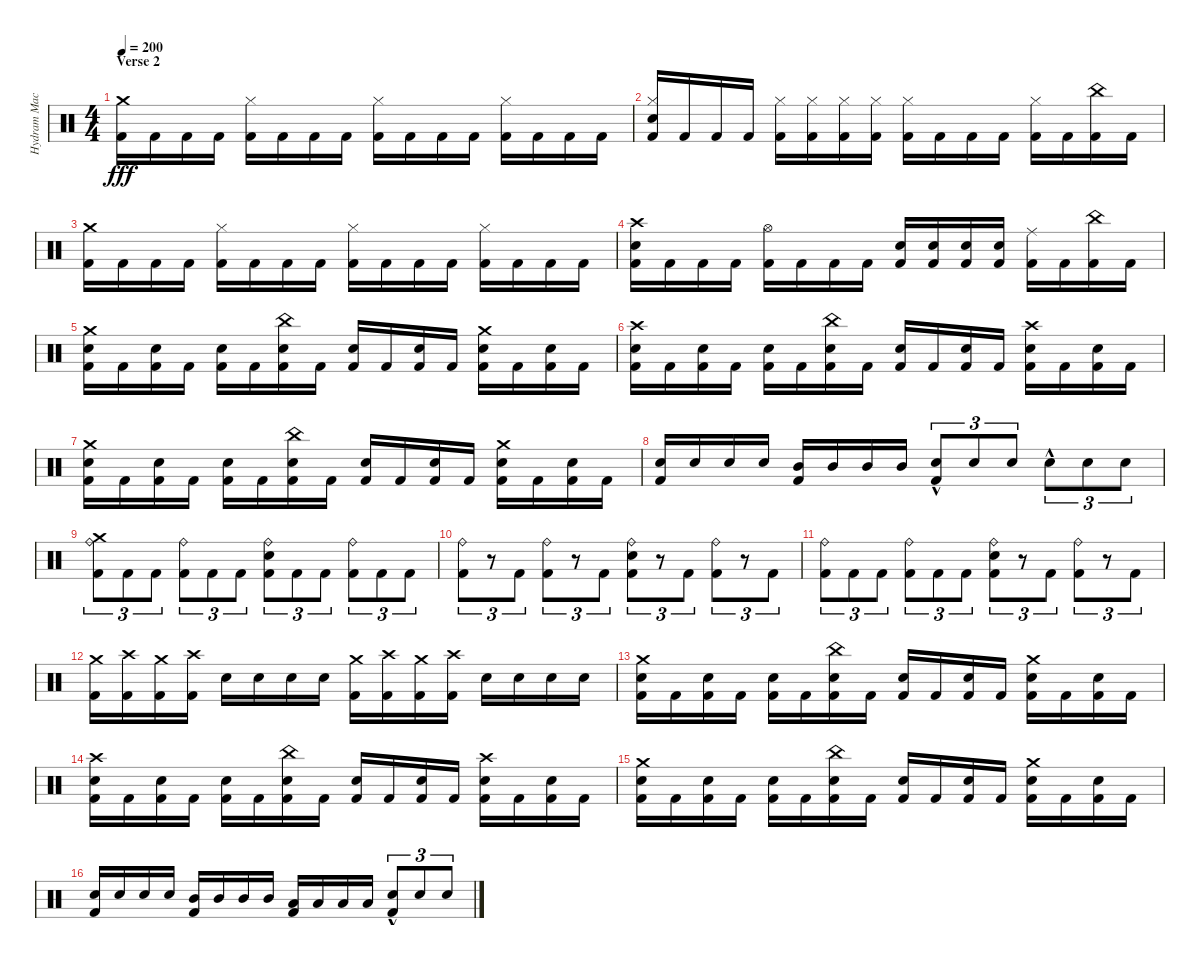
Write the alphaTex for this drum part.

\track ("Hydram Machine" "Hydram Mac") {instrument percussion}
\staff {score}
\articulation defaults
\ts (4 4)
\section ("" "Verse 2")
\tempo 200
\clef neutral
\ks c
("Crash medium (hit)" "Kick (hit) 2").16{dy fff} "Kick (hit) 2".16 "Kick (hit) 2".16 "Kick (hit) 2".16 ("Hi-Hat (closed)" "Kick (hit) 2").16 "Kick (hit) 2".16 "Kick (hit) 2".16 "Kick (hit) 2".16 ("Hi-Hat (closed)" "Kick (hit) 2").16 "Kick (hit) 2".16 "Kick (hit) 2".16 "Kick (hit) 2".16 ("Hi-Hat (closed)" "Kick (hit) 2").16 "Kick (hit) 2".16 "Kick (hit) 2".16 "Kick (hit) 2".16 |
("Hi-Hat (closed)" "Electric Snare (hit)" "Kick (hit) 2").16 "Kick (hit) 2".16 "Kick (hit) 2".16 "Kick (hit) 2".16 ("Hi-Hat (closed)" "Kick (hit) 2").16 ("Hi-Hat (closed)" "Kick (hit) 2").16 ("Hi-Hat (closed)" "Kick (hit) 2").16 ("Hi-Hat (closed)" "Kick (hit) 2").16 ("Hi-Hat (closed)" "Kick (hit) 2").16 "Kick (hit) 2".16 "Kick (hit) 2".16 "Kick (hit) 2".16 ("Hi-Hat (closed)" "Kick (hit) 2").16 "Kick (hit) 2".16 ("China (hit)" "Kick (hit) 2").16 "Kick (hit) 2".16 |
("Crash medium (hit)" "Kick (hit) 2").16 "Kick (hit) 2".16 "Kick (hit) 2".16 "Kick (hit) 2".16 ("Hi-Hat (closed)" "Kick (hit) 2").16 "Kick (hit) 2".16 "Kick (hit) 2".16 "Kick (hit) 2".16 ("Hi-Hat (closed)" "Kick (hit) 2").16 "Kick (hit) 2".16 "Kick (hit) 2".16 "Kick (hit) 2".16 ("Hi-Hat (closed)" "Kick (hit) 2").16 "Kick (hit) 2".16 "Kick (hit) 2".16 "Kick (hit) 2".16 |
("Crash high (hit)" "Electric Snare (hit)" "Kick (hit) 2").16 "Kick (hit) 2".16 "Kick (hit) 2".16 "Kick (hit) 2".16 ("Hi-Hat (open)" "Kick (hit) 2").16 "Kick (hit) 2".16 "Kick (hit) 2".16 "Kick (hit) 2".16 ("Electric Snare (hit)" "Kick (hit) 2").16 ("Electric Snare (hit)" "Kick (hit) 2").16 ("Electric Snare (hit)" "Kick (hit) 2").16 ("Electric Snare (hit)" "Kick (hit) 2").16 ("Ride (middle)" "Kick (hit) 2").16 "Kick (hit) 2".16 ("China (hit)" "Kick (hit) 2").16 "Kick (hit) 2".16 |
("Crash medium (hit)" "Electric Snare (hit)" "Kick (hit) 2").16 "Kick (hit) 2".16 ("Electric Snare (hit)" "Kick (hit) 2").16 "Kick (hit) 2".16 ("Electric Snare (hit)" "Kick (hit) 2").16 "Kick (hit) 2".16 ("China (hit)" "Electric Snare (hit)" "Kick (hit) 2").16 "Kick (hit) 2".16 ("Electric Snare (hit)" "Kick (hit) 2").16 "Kick (hit) 2".16 ("Electric Snare (hit)" "Kick (hit) 2").16 "Kick (hit) 2".16 ("Crash medium (hit)" "Electric Snare (hit)" "Kick (hit) 2").16 "Kick (hit) 2".16 ("Electric Snare (hit)" "Kick (hit) 2").16 "Kick (hit) 2".16 |
("Crash high (hit)" "Electric Snare (hit)" "Kick (hit) 2").16 "Kick (hit) 2".16 ("Electric Snare (hit)" "Kick (hit) 2").16 "Kick (hit) 2".16 ("Electric Snare (hit)" "Kick (hit) 2").16 "Kick (hit) 2".16 ("China (hit)" "Electric Snare (hit)" "Kick (hit) 2").16 "Kick (hit) 2".16 ("Electric Snare (hit)" "Kick (hit) 2").16 "Kick (hit) 2".16 ("Electric Snare (hit)" "Kick (hit) 2").16 "Kick (hit) 2".16 ("Crash high (hit)" "Electric Snare (hit)" "Kick (hit) 2").16 "Kick (hit) 2".16 ("Electric Snare (hit)" "Kick (hit) 2").16 "Kick (hit) 2".16 |
("Crash medium (hit)" "Electric Snare (hit)" "Kick (hit) 2").16 "Kick (hit) 2".16 ("Electric Snare (hit)" "Kick (hit) 2").16 "Kick (hit) 2".16 ("Electric Snare (hit)" "Kick (hit) 2").16 "Kick (hit) 2".16 ("China (hit)" "Electric Snare (hit)" "Kick (hit) 2").16 "Kick (hit) 2".16 ("Electric Snare (hit)" "Kick (hit) 2").16 "Kick (hit) 2".16 ("Electric Snare (hit)" "Kick (hit) 2").16 "Kick (hit) 2".16 ("Crash medium (hit)" "Electric Snare (hit)" "Kick (hit) 2").16 "Kick (hit) 2".16 ("Electric Snare (hit)" "Kick (hit) 2").16 "Kick (hit) 2".16 |
("Electric Snare (hit)" "Kick (hit) 2").16 "Electric Snare (hit)".16 "Electric Snare (hit)".16 "Electric Snare (hit)".16 ("Mid Tom (hit)" "Kick (hit) 2").16 "Mid Tom (hit)".16 "Mid Tom (hit)".16 "Mid Tom (hit)".16 ("Electric Snare (hit)"{hac} "Kick (hit) 2").8{tu (3 2)} "Electric Snare (hit)".8{tu (3 2)} "Electric Snare (hit)".8{tu (3 2)} "Electric Snare (hit)"{hac}.8{tu (3 2)} "Electric Snare (hit)".8{tu (3 2)} "Electric Snare (hit)".8{tu (3 2)} |
("Ride (bell)" "Crash medium (hit)" "Kick (hit) 2").8{tu (3 2)} "Kick (hit) 2".8{tu (3 2)} "Kick (hit) 2".8{tu (3 2)} ("Ride (bell)" "Kick (hit) 2").8{tu (3 2)} "Kick (hit) 2".8{tu (3 2)} "Kick (hit) 2".8{tu (3 2)} ("Ride (bell)" "Electric Snare (hit)" "Kick (hit) 2").8{tu (3 2)} "Kick (hit) 2".8{tu (3 2)} "Kick (hit) 2".8{tu (3 2)} ("Ride (bell)" "Kick (hit) 2").8{tu (3 2)} "Kick (hit) 2".8{tu (3 2)} "Kick (hit) 2".8{tu (3 2)} |
("Ride (bell)" "Kick (hit) 2").8{tu (3 2)} r.8{tu (3 2)} "Kick (hit) 2".8{tu (3 2)} ("Ride (bell)" "Kick (hit) 2").8{tu (3 2)} r.8{tu (3 2)} "Kick (hit) 2".8{tu (3 2)} ("Ride (bell)" "Electric Snare (hit)" "Kick (hit) 2").8{tu (3 2)} r.8{tu (3 2)} "Kick (hit) 2".8{tu (3 2)} ("Ride (bell)" "Kick (hit) 2").8{tu (3 2)} r.8{tu (3 2)} "Kick (hit) 2".8{tu (3 2)} |
("Ride (bell)" "Kick (hit) 2").8{tu (3 2)} "Kick (hit) 2".8{tu (3 2)} "Kick (hit) 2".8{tu (3 2)} ("Ride (bell)" "Kick (hit) 2").8{tu (3 2)} "Kick (hit) 2".8{tu (3 2)} "Kick (hit) 2".8{tu (3 2)} ("Ride (bell)" "Electric Snare (hit)" "Kick (hit) 2").8{tu (3 2)} r.8{tu (3 2)} "Kick (hit) 2".8{tu (3 2)} ("Ride (bell)" "Kick (hit) 2").8{tu (3 2)} r.8{tu (3 2)} "Kick (hit) 2".8{tu (3 2)} |
("Crash medium (hit)" "Kick (hit) 2").16 ("Crash high (hit)" "Kick (hit) 2").16 ("Crash medium (hit)" "Kick (hit) 2").16 ("Crash high (hit)" "Kick (hit) 2").16 "Electric Snare (hit)".16 "Electric Snare (hit)".16 "Electric Snare (hit)".16 "Electric Snare (hit)".16 ("Crash medium (hit)" "Kick (hit) 2").16 ("Crash high (hit)" "Kick (hit) 2").16 ("Crash medium (hit)" "Kick (hit) 2").16 ("Crash high (hit)" "Kick (hit) 2").16 "Electric Snare (hit)".16 "Electric Snare (hit)".16 "Electric Snare (hit)".16 "Electric Snare (hit)".16 |
("Crash medium (hit)" "Electric Snare (hit)" "Kick (hit) 2").16 "Kick (hit) 2".16 ("Electric Snare (hit)" "Kick (hit) 2").16 "Kick (hit) 2".16 ("Electric Snare (hit)" "Kick (hit) 2").16 "Kick (hit) 2".16 ("China (hit)" "Electric Snare (hit)" "Kick (hit) 2").16 "Kick (hit) 2".16 ("Electric Snare (hit)" "Kick (hit) 2").16 "Kick (hit) 2".16 ("Electric Snare (hit)" "Kick (hit) 2").16 "Kick (hit) 2".16 ("Crash medium (hit)" "Electric Snare (hit)" "Kick (hit) 2").16 "Kick (hit) 2".16 ("Electric Snare (hit)" "Kick (hit) 2").16 "Kick (hit) 2".16 |
("Crash high (hit)" "Electric Snare (hit)" "Kick (hit) 2").16 "Kick (hit) 2".16 ("Electric Snare (hit)" "Kick (hit) 2").16 "Kick (hit) 2".16 ("Electric Snare (hit)" "Kick (hit) 2").16 "Kick (hit) 2".16 ("China (hit)" "Electric Snare (hit)" "Kick (hit) 2").16 "Kick (hit) 2".16 ("Electric Snare (hit)" "Kick (hit) 2").16 "Kick (hit) 2".16 ("Electric Snare (hit)" "Kick (hit) 2").16 "Kick (hit) 2".16 ("Crash high (hit)" "Electric Snare (hit)" "Kick (hit) 2").16 "Kick (hit) 2".16 ("Electric Snare (hit)" "Kick (hit) 2").16 "Kick (hit) 2".16 |
("Crash medium (hit)" "Electric Snare (hit)" "Kick (hit) 2").16 "Kick (hit) 2".16 ("Electric Snare (hit)" "Kick (hit) 2").16 "Kick (hit) 2".16 ("Electric Snare (hit)" "Kick (hit) 2").16 "Kick (hit) 2".16 ("China (hit)" "Electric Snare (hit)" "Kick (hit) 2").16 "Kick (hit) 2".16 ("Electric Snare (hit)" "Kick (hit) 2").16 "Kick (hit) 2".16 ("Electric Snare (hit)" "Kick (hit) 2").16 "Kick (hit) 2".16 ("Crash medium (hit)" "Electric Snare (hit)" "Kick (hit) 2").16 "Kick (hit) 2".16 ("Electric Snare (hit)" "Kick (hit) 2").16 "Kick (hit) 2".16 |
("Electric Snare (hit)" "Kick (hit) 2").16 "Electric Snare (hit)".16 "Electric Snare (hit)".16 "Electric Snare (hit)".16 ("Mid Tom (hit)" "Kick (hit) 2").16 "Mid Tom (hit)".16 "Mid Tom (hit)".16 "Mid Tom (hit)".16 ("Low Tom (hit)" "Kick (hit) 2").16 "Low Tom (hit)".16 "Low Tom (hit)".16 "Low Tom (hit)".16 ("Electric Snare (hit)"{hac} "Kick (hit) 2").8{tu (3 2)} "Electric Snare (hit)".8{tu (3 2)} "Electric Snare (hit)".8{tu (3 2)}
